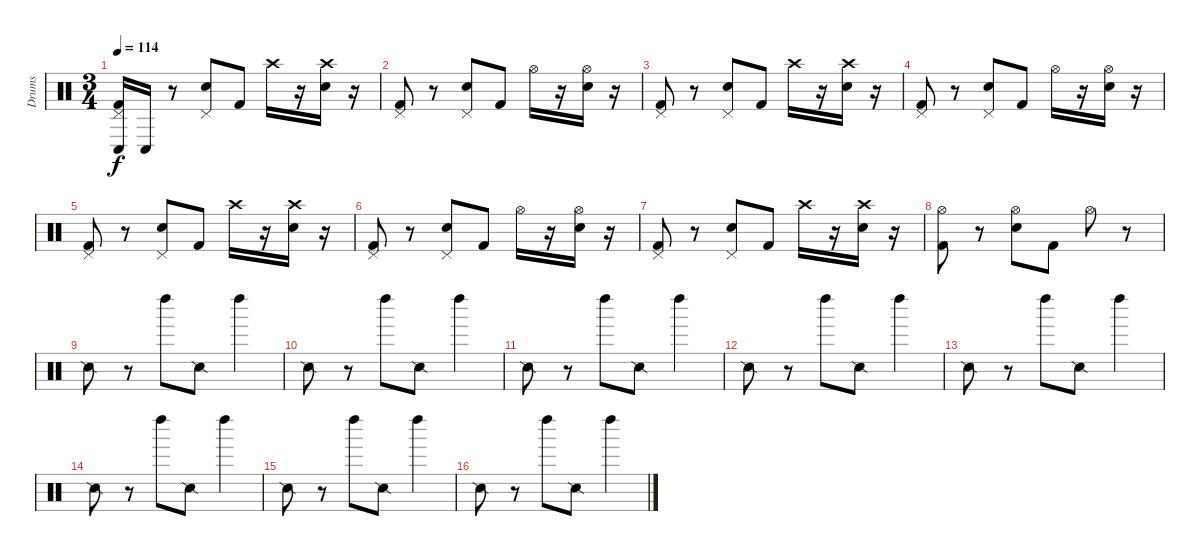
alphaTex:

\track ("Drums" "Drums") {instrument percussion}
\staff {score}
\articulation defaults
\ts (3 4)
\tempo 114
\clef neutral
\ks c
("Kick (hit) 2" "Pedal Hi-Hat (hit)" "Conga low (hit)").16{dy f} "Conga low (hit)".16 r.8 ("Electric Snare (hit)" "Pedal Hi-Hat (hit)").8 "Kick (hit) 2".8 "Crash high (hit)".16 r.16 ("Electric Snare (hit)" "Crash high (hit)").16 r.16 |
("Pedal Hi-Hat (hit)" "Kick (hit) 2").8 r.8 ("Electric Snare (hit)" "Pedal Hi-Hat (hit)").8 "Kick (hit) 2".8 "Hi-Hat (open)".16 r.16 ("Electric Snare (hit)" "Hi-Hat (open)").16 r.16 |
("Pedal Hi-Hat (hit)" "Kick (hit) 2").8 r.8 ("Electric Snare (hit)" "Pedal Hi-Hat (hit)").8 "Kick (hit) 2".8 "Crash high (hit)".16 r.16 ("Electric Snare (hit)" "Crash high (hit)").16 r.16 |
("Pedal Hi-Hat (hit)" "Kick (hit) 2").8 r.8 ("Electric Snare (hit)" "Pedal Hi-Hat (hit)").8 "Kick (hit) 2".8 "Hi-Hat (open)".16 r.16 ("Electric Snare (hit)" "Hi-Hat (open)").16 r.16 |
("Pedal Hi-Hat (hit)" "Kick (hit) 2").8 r.8 ("Electric Snare (hit)" "Pedal Hi-Hat (hit)").8 "Kick (hit) 2".8 "Crash high (hit)".16 r.16 ("Electric Snare (hit)" "Crash high (hit)").16 r.16 |
("Pedal Hi-Hat (hit)" "Kick (hit) 2").8 r.8 ("Electric Snare (hit)" "Pedal Hi-Hat (hit)").8 "Kick (hit) 2".8 "Hi-Hat (open)".16 r.16 ("Electric Snare (hit)" "Hi-Hat (open)").16 r.16 |
("Pedal Hi-Hat (hit)" "Kick (hit) 2").8 r.8 ("Electric Snare (hit)" "Pedal Hi-Hat (hit)").8 "Kick (hit) 2".8 "Crash high (hit)".16 r.16 ("Electric Snare (hit)" "Crash high (hit)").16 r.16 |
("Kick (hit) 2" "Hi-Hat (open)").8 r.8 ("Electric Snare (hit)" "Hi-Hat (open)").8 "Kick (hit) 2".8 "Hi-Hat (open)".8 r.8 |
"Snare (side stick) 2".8 r.8 "Left Maraca (hit)".8 "Snare (side stick) 2".8 "Left Maraca (hit)".4 |
"Snare (side stick) 2".8 r.8 "Left Maraca (hit)".8 "Snare (side stick) 2".8 "Left Maraca (hit)".4 |
"Snare (side stick) 2".8 r.8 "Left Maraca (hit)".8 "Snare (side stick) 2".8 "Left Maraca (hit)".4 |
"Snare (side stick) 2".8 r.8 "Left Maraca (hit)".8 "Snare (side stick) 2".8 "Left Maraca (hit)".4 |
"Snare (side stick) 2".8 r.8 "Left Maraca (hit)".8 "Snare (side stick) 2".8 "Left Maraca (hit)".4 |
"Snare (side stick) 2".8 r.8 "Left Maraca (hit)".8 "Snare (side stick) 2".8 "Left Maraca (hit)".4 |
"Snare (side stick) 2".8 r.8 "Left Maraca (hit)".8 "Snare (side stick) 2".8 "Left Maraca (hit)".4 |
"Snare (side stick) 2".8 r.8 "Left Maraca (hit)".8 "Snare (side stick) 2".8 "Left Maraca (hit)".4
